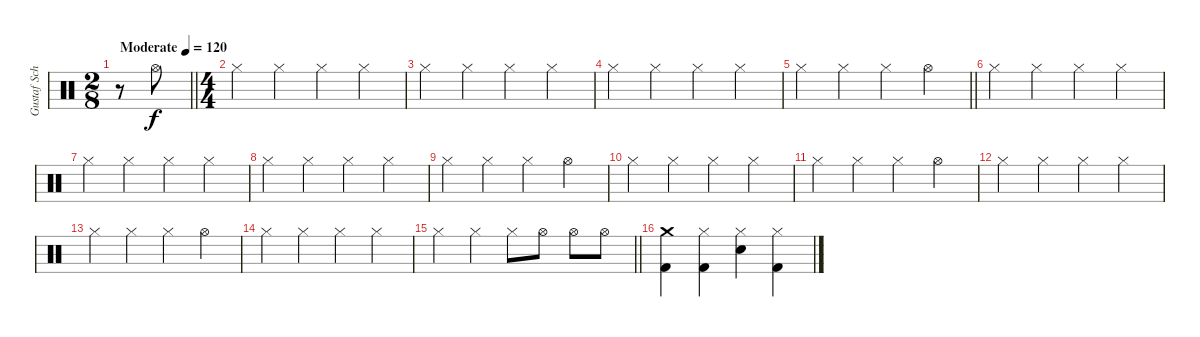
\track ("Gustaf Schafer" "Gustaf Sch") {instrument percussion}
\staff {score}
\articulation defaults
\ts (2 8)
\tempo (120 "Moderate")
\clef neutral
\barLineRight lightlight
\ks c
r.8{dy f} "Hi-Hat (open)".8 |
\ts (4 4)
\section ("" "")
"Hi-Hat (closed)".4 "Hi-Hat (closed)".4 "Hi-Hat (closed)".4 "Hi-Hat (closed)".4 |
"Hi-Hat (closed)".4 "Hi-Hat (closed)".4 "Hi-Hat (closed)".4 "Hi-Hat (closed)".4 |
"Hi-Hat (closed)".4 "Hi-Hat (closed)".4 "Hi-Hat (closed)".4 "Hi-Hat (closed)".4 |
\barLineRight lightlight "Hi-Hat (closed)".4 "Hi-Hat (closed)".4 "Hi-Hat (closed)".4 "Hi-Hat (open)".4
|
\section ("" "")
"Hi-Hat (closed)".4 "Hi-Hat (closed)".4 "Hi-Hat (closed)".4 "Hi-Hat (closed)".4 |
"Hi-Hat (closed)".4 "Hi-Hat (closed)".4 "Hi-Hat (closed)".4 "Hi-Hat (closed)".4 |
"Hi-Hat (closed)".4 "Hi-Hat (closed)".4 "Hi-Hat (closed)".4 "Hi-Hat (closed)".4 |
"Hi-Hat (closed)".4 "Hi-Hat (closed)".4 "Hi-Hat (closed)".4 "Hi-Hat (open)".4 |
"Hi-Hat (closed)".4 "Hi-Hat (closed)".4 "Hi-Hat (closed)".4 "Hi-Hat (closed)".4 |
"Hi-Hat (closed)".4 "Hi-Hat (closed)".4 "Hi-Hat (closed)".4 "Hi-Hat (open)".4 |
"Hi-Hat (closed)".4 "Hi-Hat (closed)".4 "Hi-Hat (closed)".4 "Hi-Hat (closed)".4 |
"Hi-Hat (closed)".4 "Hi-Hat (closed)".4 "Hi-Hat (closed)".4 "Hi-Hat (open)".4 |
"Hi-Hat (closed)".4 "Hi-Hat (closed)".4 "Hi-Hat (closed)".4 "Hi-Hat (closed)".4 |
\barLineRight lightlight "Hi-Hat (closed)".4 "Hi-Hat (closed)".4 "Hi-Hat (closed)".8 "Hi-Hat (open)".8 "Hi-Hat (open)".8 "Hi-Hat (open)".8
|
\section ("" "")
("Crash medium (hit)" "Kick (hit) 2").4 ("Hi-Hat (closed)" "Kick (hit) 2").4 ("Hi-Hat (closed)" "Snare (hit) 2").4 ("Hi-Hat (closed)" "Kick (hit) 2").4
